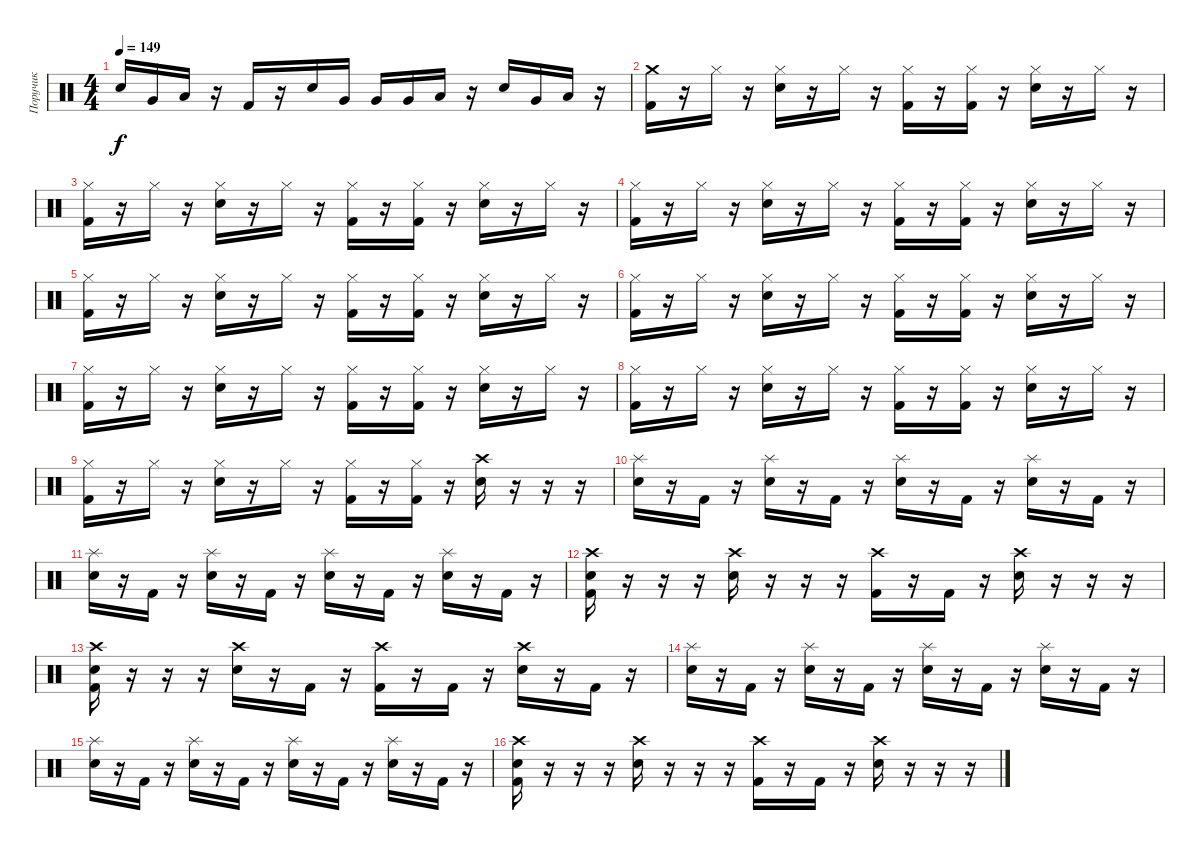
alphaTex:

\track ("Поручик" "Поручик") {instrument percussion}
\staff {score}
\articulation defaults
\ts (4 4)
\tempo 149
\clef neutral
\ks c "Snare (hit) 2".16{dy f} "Very Low Tom (hit)".16 "Low Floor Tom (hit)".16
r.16 "Kick (hit) 2".16 r.16 "Snare (hit) 2".16 "Very Low Tom (hit)".16 "Very Low Tom (hit)".16 "Very Low Tom (hit)".16 "Low Floor Tom (hit)".16 r.16 "Snare (hit) 2".16 "Very Low Tom (hit)".16 "Low Floor Tom (hit)".16 r.16 |
("Crash medium (hit)" "Kick (hit) 2").16 r.16 "Hi-Hat (closed)".16 r.16 ("Hi-Hat (closed)" "Snare (hit) 2").16 r.16 "Hi-Hat (closed)".16 r.16 ("Hi-Hat (closed)" "Kick (hit) 2").16 r.16 ("Hi-Hat (closed)" "Kick (hit) 2").16 r.16 ("Hi-Hat (closed)" "Snare (hit) 2").16 r.16 "Hi-Hat (closed)".16 r.16 |
("Hi-Hat (closed)" "Kick (hit) 2").16 r.16 "Hi-Hat (closed)".16 r.16 ("Hi-Hat (closed)" "Snare (hit) 2").16 r.16 "Hi-Hat (closed)".16 r.16 ("Hi-Hat (closed)" "Kick (hit) 2").16 r.16 ("Hi-Hat (closed)" "Kick (hit) 2").16 r.16 ("Hi-Hat (closed)" "Snare (hit) 2").16 r.16 "Hi-Hat (closed)".16 r.16 |
("Hi-Hat (closed)" "Kick (hit) 2").16 r.16 "Hi-Hat (closed)".16 r.16 ("Hi-Hat (closed)" "Snare (hit) 2").16 r.16 "Hi-Hat (closed)".16 r.16 ("Hi-Hat (closed)" "Kick (hit) 2").16 r.16 ("Hi-Hat (closed)" "Kick (hit) 2").16 r.16 ("Hi-Hat (closed)" "Snare (hit) 2").16 r.16 "Hi-Hat (closed)".16 r.16 |
("Hi-Hat (closed)" "Kick (hit) 2").16 r.16 "Hi-Hat (closed)".16 r.16 ("Hi-Hat (closed)" "Snare (hit) 2").16 r.16 "Hi-Hat (closed)".16 r.16 ("Hi-Hat (closed)" "Kick (hit) 2").16 r.16 ("Hi-Hat (closed)" "Kick (hit) 2").16 r.16 ("Hi-Hat (closed)" "Snare (hit) 2").16 r.16 "Hi-Hat (closed)".16 r.16 |
("Hi-Hat (closed)" "Kick (hit) 2").16 r.16 "Hi-Hat (closed)".16 r.16 ("Hi-Hat (closed)" "Snare (hit) 2").16 r.16 "Hi-Hat (closed)".16 r.16 ("Hi-Hat (closed)" "Kick (hit) 2").16 r.16 ("Hi-Hat (closed)" "Kick (hit) 2").16 r.16 ("Hi-Hat (closed)" "Snare (hit) 2").16 r.16 "Hi-Hat (closed)".16 r.16 |
("Hi-Hat (closed)" "Kick (hit) 2").16 r.16 "Hi-Hat (closed)".16 r.16 ("Hi-Hat (closed)" "Snare (hit) 2").16 r.16 "Hi-Hat (closed)".16 r.16 ("Hi-Hat (closed)" "Kick (hit) 2").16 r.16 ("Hi-Hat (closed)" "Kick (hit) 2").16 r.16 ("Hi-Hat (closed)" "Snare (hit) 2").16 r.16 "Hi-Hat (closed)".16 r.16 |
("Hi-Hat (closed)" "Kick (hit) 2").16 r.16 "Hi-Hat (closed)".16 r.16 ("Hi-Hat (closed)" "Snare (hit) 2").16 r.16 "Hi-Hat (closed)".16 r.16 ("Hi-Hat (closed)" "Kick (hit) 2").16 r.16 ("Hi-Hat (closed)" "Kick (hit) 2").16 r.16 ("Hi-Hat (closed)" "Snare (hit) 2").16 r.16 "Hi-Hat (closed)".16 r.16 |
("Hi-Hat (closed)" "Kick (hit) 2").16 r.16 "Hi-Hat (closed)".16 r.16 ("Hi-Hat (closed)" "Snare (hit) 2").16 r.16 "Hi-Hat (closed)".16 r.16 ("Hi-Hat (closed)" "Kick (hit) 2").16 r.16 ("Hi-Hat (closed)" "Kick (hit) 2").16 r.16 ("Crash high (hit)" "Snare (hit) 2").16 r.16 r.16 r.16 |
("Splash (hit)" "Snare (hit) 2").16 r.16 "Kick (hit) 2".16 r.16 ("Splash (hit)" "Snare (hit) 2").16 r.16 "Kick (hit) 2".16 r.16 ("Splash (hit)" "Snare (hit) 2").16 r.16 "Kick (hit) 2".16 r.16 ("Splash (hit)" "Snare (hit) 2").16 r.16 "Kick (hit) 2".16 r.16 |
("Splash (hit)" "Snare (hit) 2").16 r.16 "Kick (hit) 2".16 r.16 ("Splash (hit)" "Snare (hit) 2").16 r.16 "Kick (hit) 2".16 r.16 ("Splash (hit)" "Snare (hit) 2").16 r.16 "Kick (hit) 2".16 r.16 ("Splash (hit)" "Snare (hit) 2").16 r.16 "Kick (hit) 2".16 r.16 |
("Crash high (hit)" "Snare (hit) 2" "Kick (hit) 2").16 r.16 r.16 r.16 ("Crash high (hit)" "Snare (hit) 2").16 r.16 r.16 r.16 ("Crash high (hit)" "Kick (hit) 2").16 r.16 "Kick (hit) 2".16 r.16 ("Crash high (hit)" "Snare (hit) 2").16 r.16 r.16 r.16 |
("Crash high (hit)" "Snare (hit) 2" "Kick (hit) 2").16 r.16 r.16 r.16 ("Crash high (hit)" "Snare (hit) 2").16 r.16 "Kick (hit) 2".16 r.16 ("Crash high (hit)" "Kick (hit) 2").16 r.16 "Kick (hit) 2".16 r.16 ("Crash high (hit)" "Snare (hit) 2").16 r.16 "Kick (hit) 2".16 r.16 |
("Splash (hit)" "Snare (hit) 2").16 r.16 "Kick (hit) 2".16 r.16 ("Splash (hit)" "Snare (hit) 2").16 r.16 "Kick (hit) 2".16 r.16 ("Splash (hit)" "Snare (hit) 2").16 r.16 "Kick (hit) 2".16 r.16 ("Splash (hit)" "Snare (hit) 2").16 r.16 "Kick (hit) 2".16 r.16 |
("Splash (hit)" "Snare (hit) 2").16 r.16 "Kick (hit) 2".16 r.16 ("Splash (hit)" "Snare (hit) 2").16 r.16 "Kick (hit) 2".16 r.16 ("Splash (hit)" "Snare (hit) 2").16 r.16 "Kick (hit) 2".16 r.16 ("Splash (hit)" "Snare (hit) 2").16 r.16 "Kick (hit) 2".16 r.16 |
("Crash high (hit)" "Snare (hit) 2" "Kick (hit) 2").16 r.16 r.16 r.16 ("Crash high (hit)" "Snare (hit) 2").16 r.16 r.16 r.16 ("Crash high (hit)" "Kick (hit) 2").16 r.16 "Kick (hit) 2".16 r.16 ("Crash high (hit)" "Snare (hit) 2").16 r.16 r.16 r.16
